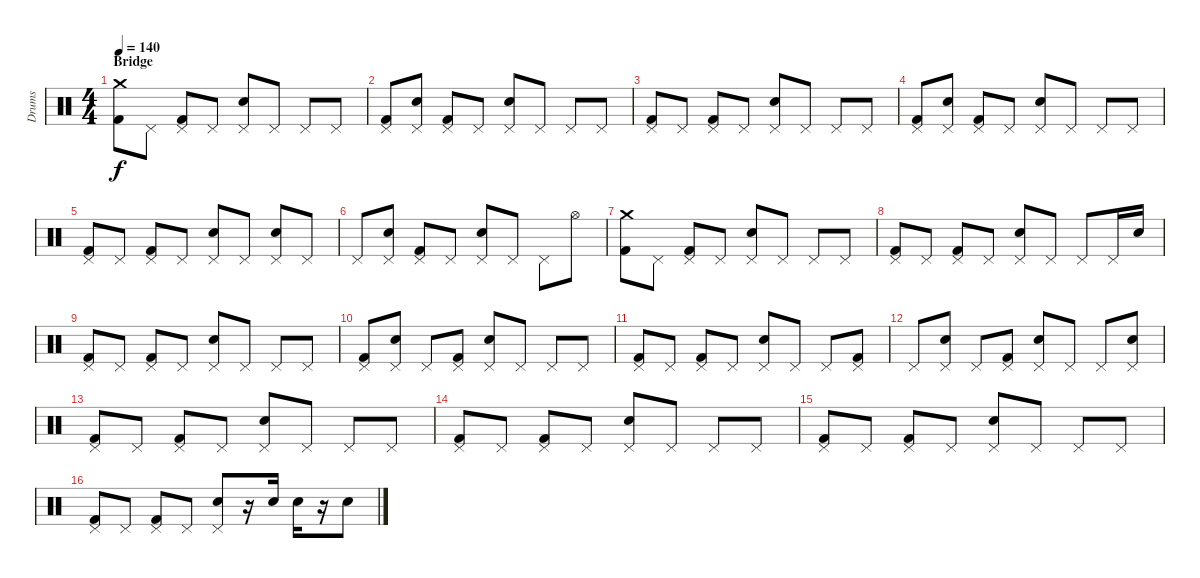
\track ("Drums" "Drums") {instrument percussion}
\staff {score}
\articulation defaults
\ts (4 4)
\section ("" "Bridge")
\tempo 140
\clef neutral
\ks c
("Crash medium (hit)" "Kick (hit) 2").8{dy f} "Pedal Hi-Hat (hit)".8 ("Pedal Hi-Hat (hit)" "Kick (hit) 2").8 "Pedal Hi-Hat (hit)".8 ("Pedal Hi-Hat (hit)" "Electric Snare (hit)").8 "Pedal Hi-Hat (hit)".8 "Pedal Hi-Hat (hit)".8 "Pedal Hi-Hat (hit)".8 |
("Pedal Hi-Hat (hit)" "Kick (hit) 2").8 ("Pedal Hi-Hat (hit)" "Electric Snare (hit)").8 ("Pedal Hi-Hat (hit)" "Kick (hit) 2").8 "Pedal Hi-Hat (hit)".8 ("Pedal Hi-Hat (hit)" "Electric Snare (hit)").8 "Pedal Hi-Hat (hit)".8 "Pedal Hi-Hat (hit)".8 "Pedal Hi-Hat (hit)".8 |
("Pedal Hi-Hat (hit)" "Kick (hit) 2").8 "Pedal Hi-Hat (hit)".8 ("Pedal Hi-Hat (hit)" "Kick (hit) 2").8 "Pedal Hi-Hat (hit)".8 ("Pedal Hi-Hat (hit)" "Electric Snare (hit)").8 "Pedal Hi-Hat (hit)".8 "Pedal Hi-Hat (hit)".8 "Pedal Hi-Hat (hit)".8 |
("Pedal Hi-Hat (hit)" "Kick (hit) 2").8 ("Pedal Hi-Hat (hit)" "Electric Snare (hit)").8 ("Pedal Hi-Hat (hit)" "Kick (hit) 2").8 "Pedal Hi-Hat (hit)".8 ("Pedal Hi-Hat (hit)" "Electric Snare (hit)").8 "Pedal Hi-Hat (hit)".8 "Pedal Hi-Hat (hit)".8 "Pedal Hi-Hat (hit)".8 |
("Pedal Hi-Hat (hit)" "Kick (hit) 2").8 "Pedal Hi-Hat (hit)".8 ("Pedal Hi-Hat (hit)" "Kick (hit) 2").8 "Pedal Hi-Hat (hit)".8 ("Pedal Hi-Hat (hit)" "Electric Snare (hit)").8 "Pedal Hi-Hat (hit)".8 ("Pedal Hi-Hat (hit)" "Electric Snare (hit)").8 "Pedal Hi-Hat (hit)".8 |
"Pedal Hi-Hat (hit)".8 ("Pedal Hi-Hat (hit)" "Electric Snare (hit)").8 ("Pedal Hi-Hat (hit)" "Kick (hit) 2").8 "Pedal Hi-Hat (hit)".8 ("Pedal Hi-Hat (hit)" "Electric Snare (hit)").8 "Pedal Hi-Hat (hit)".8 "Pedal Hi-Hat (hit)".8 "Hi-Hat (open)".8 |
("Crash medium (hit)" "Kick (hit) 2").8 "Pedal Hi-Hat (hit)".8 ("Pedal Hi-Hat (hit)" "Kick (hit) 2").8 "Pedal Hi-Hat (hit)".8 ("Pedal Hi-Hat (hit)" "Electric Snare (hit)").8 "Pedal Hi-Hat (hit)".8 "Pedal Hi-Hat (hit)".8 "Pedal Hi-Hat (hit)".8 |
("Pedal Hi-Hat (hit)" "Kick (hit) 2").8 "Pedal Hi-Hat (hit)".8 ("Pedal Hi-Hat (hit)" "Kick (hit) 2").8 "Pedal Hi-Hat (hit)".8 ("Pedal Hi-Hat (hit)" "Electric Snare (hit)").8 "Pedal Hi-Hat (hit)".8 "Pedal Hi-Hat (hit)".8 "Pedal Hi-Hat (hit)".16 "Electric Snare (hit)".16 |
("Pedal Hi-Hat (hit)" "Kick (hit) 2").8 "Pedal Hi-Hat (hit)".8 ("Pedal Hi-Hat (hit)" "Kick (hit) 2").8 "Pedal Hi-Hat (hit)".8 ("Pedal Hi-Hat (hit)" "Electric Snare (hit)").8 "Pedal Hi-Hat (hit)".8 "Pedal Hi-Hat (hit)".8 "Pedal Hi-Hat (hit)".8 |
("Pedal Hi-Hat (hit)" "Kick (hit) 2").8 ("Pedal Hi-Hat (hit)" "Electric Snare (hit)").8 "Pedal Hi-Hat (hit)".8 ("Pedal Hi-Hat (hit)" "Kick (hit) 2").8 ("Pedal Hi-Hat (hit)" "Electric Snare (hit)").8 "Pedal Hi-Hat (hit)".8 "Pedal Hi-Hat (hit)".8 "Pedal Hi-Hat (hit)".8 |
("Pedal Hi-Hat (hit)" "Kick (hit) 2").8 "Pedal Hi-Hat (hit)".8 ("Pedal Hi-Hat (hit)" "Kick (hit) 2").8 "Pedal Hi-Hat (hit)".8 ("Pedal Hi-Hat (hit)" "Electric Snare (hit)").8 "Pedal Hi-Hat (hit)".8 "Pedal Hi-Hat (hit)".8 ("Pedal Hi-Hat (hit)" "Kick (hit) 2").8 |
"Pedal Hi-Hat (hit)".8 ("Pedal Hi-Hat (hit)" "Electric Snare (hit)").8 "Pedal Hi-Hat (hit)".8 ("Pedal Hi-Hat (hit)" "Kick (hit) 2").8 ("Pedal Hi-Hat (hit)" "Electric Snare (hit)").8 "Pedal Hi-Hat (hit)".8 "Pedal Hi-Hat (hit)".8 ("Pedal Hi-Hat (hit)" "Electric Snare (hit)").8 |
("Pedal Hi-Hat (hit)" "Kick (hit) 2").8 "Pedal Hi-Hat (hit)".8 ("Pedal Hi-Hat (hit)" "Kick (hit) 2").8 "Pedal Hi-Hat (hit)".8 ("Pedal Hi-Hat (hit)" "Electric Snare (hit)").8 "Pedal Hi-Hat (hit)".8 "Pedal Hi-Hat (hit)".8 "Pedal Hi-Hat (hit)".8 |
("Pedal Hi-Hat (hit)" "Kick (hit) 2").8 "Pedal Hi-Hat (hit)".8 ("Pedal Hi-Hat (hit)" "Kick (hit) 2").8 "Pedal Hi-Hat (hit)".8 ("Pedal Hi-Hat (hit)" "Electric Snare (hit)").8 "Pedal Hi-Hat (hit)".8 "Pedal Hi-Hat (hit)".8 "Pedal Hi-Hat (hit)".8 |
("Pedal Hi-Hat (hit)" "Kick (hit) 2").8 "Pedal Hi-Hat (hit)".8 ("Pedal Hi-Hat (hit)" "Kick (hit) 2").8 "Pedal Hi-Hat (hit)".8 ("Pedal Hi-Hat (hit)" "Electric Snare (hit)").8 "Pedal Hi-Hat (hit)".8 "Pedal Hi-Hat (hit)".8 "Pedal Hi-Hat (hit)".8 |
("Pedal Hi-Hat (hit)" "Kick (hit) 2").8 "Pedal Hi-Hat (hit)".8 ("Pedal Hi-Hat (hit)" "Kick (hit) 2").8 "Pedal Hi-Hat (hit)".8 ("Pedal Hi-Hat (hit)" "Electric Snare (hit)").8 r.16 "Electric Snare (hit)".16 "Electric Snare (hit)".16 r.16 "Electric Snare (hit)".8
